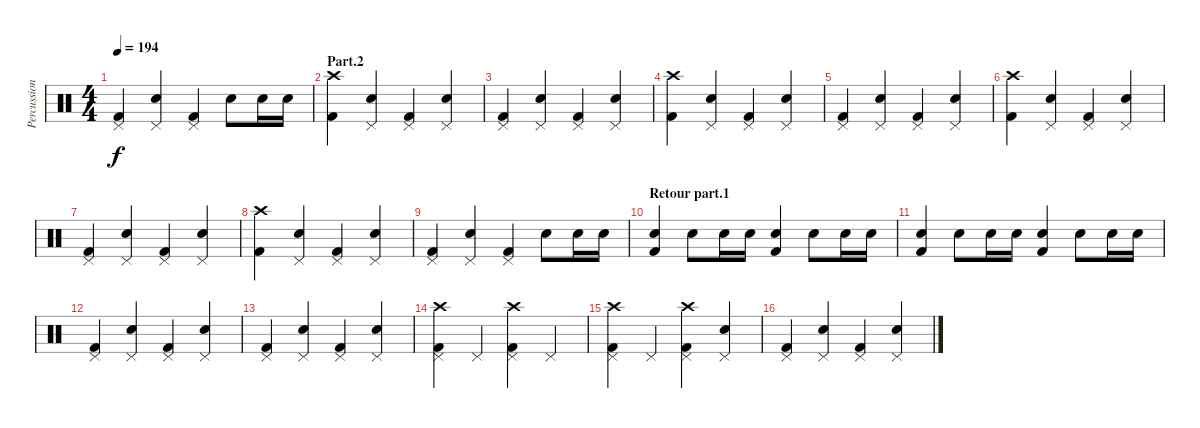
\track ("Percussions" "Percussion") {instrument percussion}
\staff {score}
\articulation defaults
\ts (4 4)
\tempo 194
\clef neutral
\ks c
("Pedal Hi-Hat (hit)" "Kick (hit) 2").4{dy f} ("Pedal Hi-Hat (hit)" "Snare (hit) 2").4 ("Pedal Hi-Hat (hit)" "Kick (hit) 2").4 "Snare (hit) 2".8 "Snare (hit) 2".16 "Snare (hit) 2".16 |
\section ("" "Part.2")
("Crash high (hit)" "Kick (hit) 2").4 ("Pedal Hi-Hat (hit)" "Snare (hit) 2").4 ("Pedal Hi-Hat (hit)" "Kick (hit) 2").4 ("Pedal Hi-Hat (hit)" "Snare (hit) 2").4 |
("Pedal Hi-Hat (hit)" "Kick (hit) 2").4 ("Pedal Hi-Hat (hit)" "Snare (hit) 2").4 ("Pedal Hi-Hat (hit)" "Kick (hit) 2").4 ("Pedal Hi-Hat (hit)" "Snare (hit) 2").4 |
("Crash high (hit)" "Kick (hit) 2").4 ("Pedal Hi-Hat (hit)" "Snare (hit) 2").4 ("Pedal Hi-Hat (hit)" "Kick (hit) 2").4 ("Pedal Hi-Hat (hit)" "Snare (hit) 2").4 |
("Pedal Hi-Hat (hit)" "Kick (hit) 2").4 ("Pedal Hi-Hat (hit)" "Snare (hit) 2").4 ("Pedal Hi-Hat (hit)" "Kick (hit) 2").4 ("Pedal Hi-Hat (hit)" "Snare (hit) 2").4 |
("Crash high (hit)" "Kick (hit) 2").4 ("Pedal Hi-Hat (hit)" "Snare (hit) 2").4 ("Pedal Hi-Hat (hit)" "Kick (hit) 2").4 ("Pedal Hi-Hat (hit)" "Snare (hit) 2").4 |
("Pedal Hi-Hat (hit)" "Kick (hit) 2").4 ("Pedal Hi-Hat (hit)" "Snare (hit) 2").4 ("Pedal Hi-Hat (hit)" "Kick (hit) 2").4 ("Pedal Hi-Hat (hit)" "Snare (hit) 2").4 |
("Crash high (hit)" "Kick (hit) 2").4 ("Pedal Hi-Hat (hit)" "Snare (hit) 2").4 ("Pedal Hi-Hat (hit)" "Kick (hit) 2").4 ("Pedal Hi-Hat (hit)" "Snare (hit) 2").4 |
("Pedal Hi-Hat (hit)" "Kick (hit) 2").4 ("Pedal Hi-Hat (hit)" "Snare (hit) 2").4 ("Pedal Hi-Hat (hit)" "Kick (hit) 2").4 "Snare (hit) 2".8 "Snare (hit) 2".16 "Snare (hit) 2".16 |
\section ("" "Retour part.1")
("Snare (hit) 2" "Kick (hit) 2").4 "Snare (hit) 2".8 "Snare (hit) 2".16 "Snare (hit) 2".16 ("Snare (hit) 2" "Kick (hit) 2").4 "Snare (hit) 2".8 "Snare (hit) 2".16 "Snare (hit) 2".16 |
("Snare (hit) 2" "Kick (hit) 2").4 "Snare (hit) 2".8 "Snare (hit) 2".16 "Snare (hit) 2".16 ("Snare (hit) 2" "Kick (hit) 2").4 "Snare (hit) 2".8 "Snare (hit) 2".16 "Snare (hit) 2".16 |
("Pedal Hi-Hat (hit)" "Kick (hit) 2").4 ("Pedal Hi-Hat (hit)" "Snare (hit) 2").4 ("Pedal Hi-Hat (hit)" "Kick (hit) 2").4 ("Pedal Hi-Hat (hit)" "Snare (hit) 2").4 |
("Pedal Hi-Hat (hit)" "Kick (hit) 2").4 ("Pedal Hi-Hat (hit)" "Snare (hit) 2").4 ("Pedal Hi-Hat (hit)" "Kick (hit) 2").4 ("Pedal Hi-Hat (hit)" "Snare (hit) 2").4 |
("Crash high (hit)" "Pedal Hi-Hat (hit)" "Kick (hit) 2").4 "Pedal Hi-Hat (hit)".4 ("Crash high (hit)" "Pedal Hi-Hat (hit)" "Kick (hit) 2").4 "Pedal Hi-Hat (hit)".4 |
("Crash high (hit)" "Pedal Hi-Hat (hit)" "Kick (hit) 2").4 "Pedal Hi-Hat (hit)".4 ("Crash high (hit)" "Pedal Hi-Hat (hit)" "Kick (hit) 2").4 ("Pedal Hi-Hat (hit)" "Snare (hit) 2").4 |
("Pedal Hi-Hat (hit)" "Kick (hit) 2").4 ("Pedal Hi-Hat (hit)" "Snare (hit) 2").4 ("Pedal Hi-Hat (hit)" "Kick (hit) 2").4 ("Pedal Hi-Hat (hit)" "Snare (hit) 2").4
